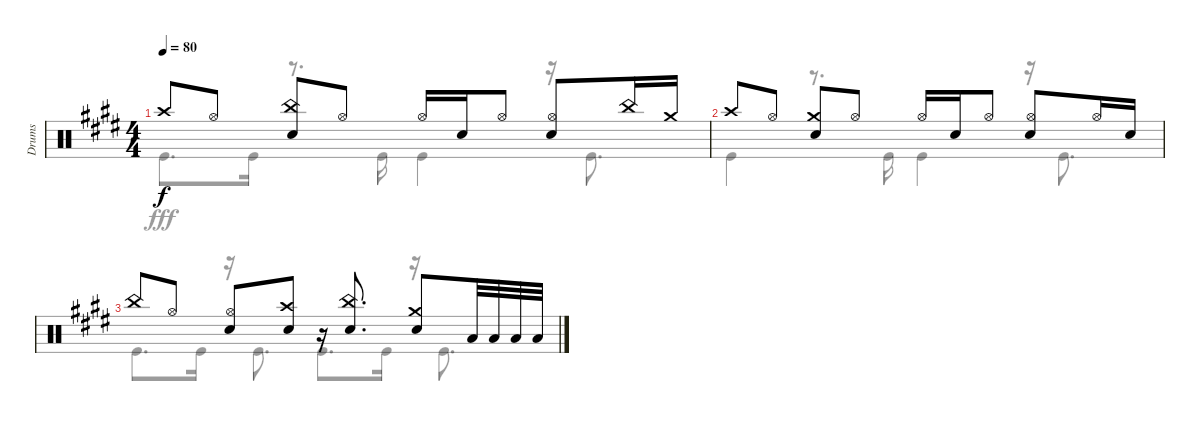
\track ("Drums" "Drums") {instrument percussion}
\staff {score}
\articulation defaults
\voice
\ts (4 4)
\tempo 80
\clef neutral
\ks e "Crash high (hit)".8{dy f} "Hi-Hat (open)".8
("China (hit)" "Snare (hit) 2").8 "Hi-Hat (open)".8 "Hi-Hat (open)".16 "Snare (hit) 2".16 "Hi-Hat (open)".8 ("Hi-Hat (open)" "Snare (hit) 2").8 "China (hit)".16 "Crash medium (hit)".16 |
"Crash high (hit)".8 "Hi-Hat (open)".8 ("Crash medium (hit)" "Snare (hit) 2").8 "Hi-Hat (open)".8 "Hi-Hat (open)".16 "Snare (hit) 2".16 "Hi-Hat (open)".8 ("Hi-Hat (open)" "Snare (hit) 2").8 "Hi-Hat (open)".16 "Snare (hit) 2".16 |
"China (hit)".8 "Hi-Hat (open)".8 ("Hi-Hat (open)" "Snare (hit) 2").8 ("Crash high (hit)" "Snare (hit) 2").8 r.16 ("China (hit)" "Snare (hit) 2").8{d} ("Crash medium (hit)" "Snare (hit) 2").8 "Low Tom (hit)".32 "Low Tom (hit)".32 "Low Tom (hit)".32 "Low Tom (hit)".32
\voice
\clef neutral
\ottava regular
\simile none
\ks e "Kick (hit)".8{d dy fff} "Kick (hit)".16
r.8{d} "Kick (hit)".16 "Kick (hit)".4 r.16 "Kick (hit)".8{d} |
"Kick (hit)".4 r.8{d} "Kick (hit)".16 "Kick (hit)".4 r.16 "Kick (hit)".8{d} |
"Kick (hit)".8{d} "Kick (hit)".16 r.16 "Kick (hit)".8{d} "Kick (hit)".8{d} "Kick (hit)".16 r.16 "Kick (hit)".8{d}
